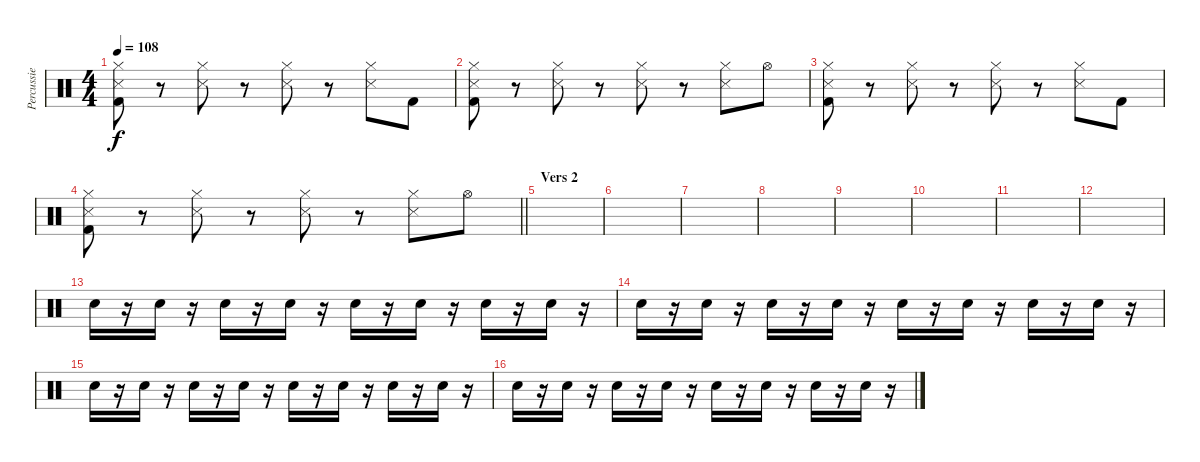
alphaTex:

\track ("Percussie" "Percussie") {instrument percussion}
\staff {score}
\articulation defaults
\ts (4 4)
\tempo 108
\clef neutral
\ks c
("Hi-Hat (closed)" "Metronome (hit)" "Kick (hit) 2").8{dy f} r.8 ("Hi-Hat (closed)" "Metronome (hit)").8 r.8 ("Hi-Hat (closed)" "Metronome (hit)").8 r.8 ("Hi-Hat (closed)" "Metronome (hit)").8 "Kick (hit) 2".8 |
("Hi-Hat (closed)" "Metronome (hit)" "Kick (hit) 2").8 r.8 ("Hi-Hat (closed)" "Metronome (hit)").8 r.8 ("Hi-Hat (closed)" "Metronome (hit)").8 r.8 ("Hi-Hat (closed)" "Metronome (hit)").8 "Hi-Hat (open)".8 |
("Hi-Hat (closed)" "Metronome (hit)" "Kick (hit) 2").8 r.8 ("Hi-Hat (closed)" "Metronome (hit)").8 r.8 ("Hi-Hat (closed)" "Metronome (hit)").8 r.8 ("Hi-Hat (closed)" "Metronome (hit)").8 "Kick (hit) 2".8 |
\barLineRight lightlight
("Hi-Hat (closed)" "Metronome (hit)" "Kick (hit) 2").8 r.8 ("Hi-Hat (closed)" "Metronome (hit)").8 r.8 ("Hi-Hat (closed)" "Metronome (hit)").8 r.8 ("Hi-Hat (closed)" "Metronome (hit)").8 "Hi-Hat (open)".8 |
\section ("" "Vers 2")
|
|
|
|
|
|
|
|
"Snare (hit) 2".16 r.16 "Snare (hit) 2".16 r.16 "Snare (hit) 2".16 r.16 "Snare (hit) 2".16 r.16 "Snare (hit) 2".16 r.16 "Snare (hit) 2".16 r.16 "Snare (hit) 2".16 r.16 "Snare (hit) 2".16 r.16 |
"Snare (hit) 2".16 r.16 "Snare (hit) 2".16 r.16 "Snare (hit) 2".16 r.16 "Snare (hit) 2".16 r.16 "Snare (hit) 2".16 r.16 "Snare (hit) 2".16 r.16 "Snare (hit) 2".16 r.16 "Snare (hit) 2".16 r.16 |
"Snare (hit) 2".16 r.16 "Snare (hit) 2".16 r.16 "Snare (hit) 2".16 r.16 "Snare (hit) 2".16 r.16 "Snare (hit) 2".16 r.16 "Snare (hit) 2".16 r.16 "Snare (hit) 2".16 r.16 "Snare (hit) 2".16 r.16 |
"Snare (hit) 2".16 r.16 "Snare (hit) 2".16 r.16 "Snare (hit) 2".16 r.16 "Snare (hit) 2".16 r.16 "Snare (hit) 2".16 r.16 "Snare (hit) 2".16 r.16 "Snare (hit) 2".16 r.16 "Snare (hit) 2".16 r.16
